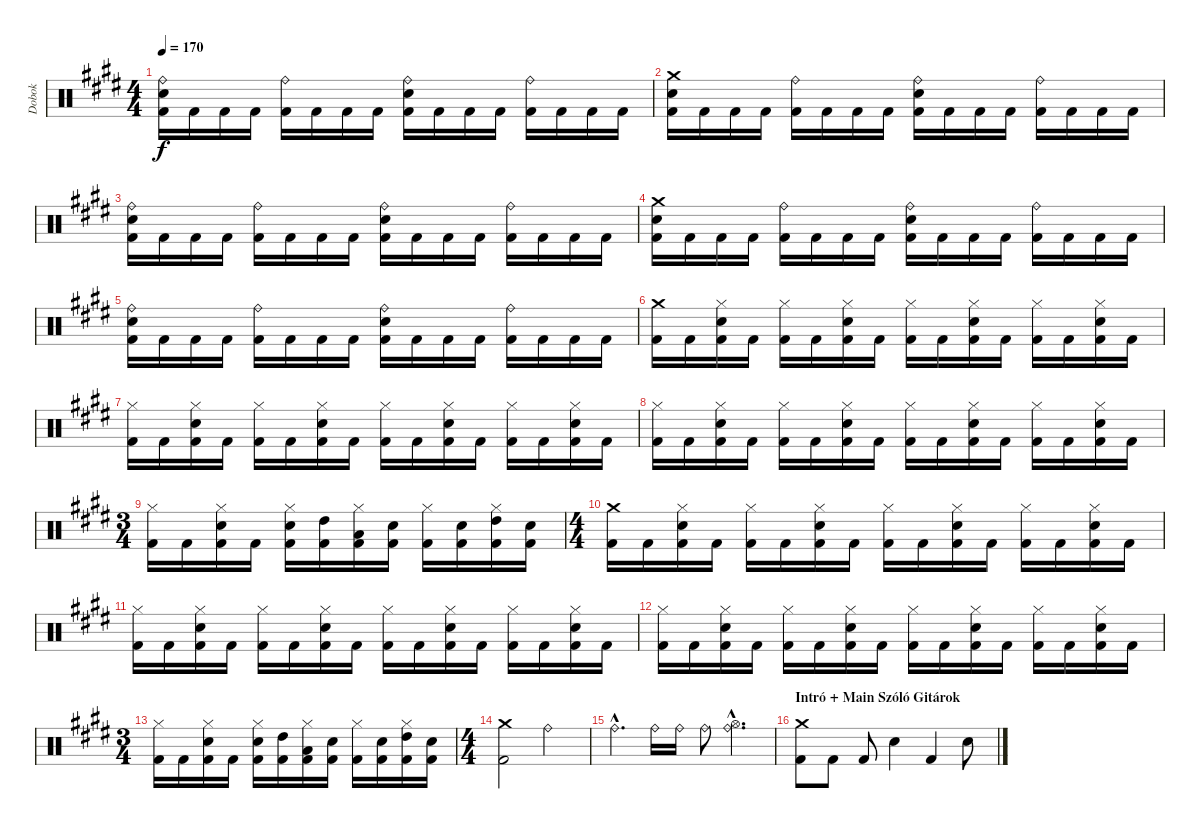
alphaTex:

\track ("Dobok" "Dobok") {instrument percussion}
\staff {score}
\articulation defaults
\ts (4 4)
\tempo 170
\clef neutral
\ks c#minor
("Ride (bell)" "Snare (hit) 2" "Kick (hit) 2").16{dy f} "Kick (hit) 2".16 "Kick (hit) 2".16 "Kick (hit) 2".16 ("Ride (bell)" "Kick (hit) 2").16 "Kick (hit) 2".16 "Kick (hit) 2".16 "Kick (hit) 2".16 ("Ride (bell)" "Snare (hit) 2" "Kick (hit) 2").16 "Kick (hit) 2".16 "Kick (hit) 2".16 "Kick (hit) 2".16 ("Ride (bell)" "Kick (hit) 2").16 "Kick (hit) 2".16 "Kick (hit) 2".16 "Kick (hit) 2".16 |
("Crash medium (hit)" "Snare (hit) 2" "Kick (hit) 2").16 "Kick (hit) 2".16 "Kick (hit) 2".16 "Kick (hit) 2".16 ("Ride (bell)" "Kick (hit) 2").16 "Kick (hit) 2".16 "Kick (hit) 2".16 "Kick (hit) 2".16 ("Ride (bell)" "Snare (hit) 2" "Kick (hit) 2").16 "Kick (hit) 2".16 "Kick (hit) 2".16 "Kick (hit) 2".16 ("Ride (bell)" "Kick (hit) 2").16 "Kick (hit) 2".16 "Kick (hit) 2".16 "Kick (hit) 2".16 |
("Ride (bell)" "Snare (hit) 2" "Kick (hit) 2").16 "Kick (hit) 2".16 "Kick (hit) 2".16 "Kick (hit) 2".16 ("Ride (bell)" "Kick (hit) 2").16 "Kick (hit) 2".16 "Kick (hit) 2".16 "Kick (hit) 2".16 ("Ride (bell)" "Snare (hit) 2" "Kick (hit) 2").16 "Kick (hit) 2".16 "Kick (hit) 2".16 "Kick (hit) 2".16 ("Ride (bell)" "Kick (hit) 2").16 "Kick (hit) 2".16 "Kick (hit) 2".16 "Kick (hit) 2".16 |
("Crash medium (hit)" "Snare (hit) 2" "Kick (hit) 2").16 "Kick (hit) 2".16 "Kick (hit) 2".16 "Kick (hit) 2".16 ("Ride (bell)" "Kick (hit) 2").16 "Kick (hit) 2".16 "Kick (hit) 2".16 "Kick (hit) 2".16 ("Ride (bell)" "Snare (hit) 2" "Kick (hit) 2").16 "Kick (hit) 2".16 "Kick (hit) 2".16 "Kick (hit) 2".16 ("Ride (bell)" "Kick (hit) 2").16 "Kick (hit) 2".16 "Kick (hit) 2".16 "Kick (hit) 2".16 |
("Ride (bell)" "Snare (hit) 2" "Kick (hit) 2").16 "Kick (hit) 2".16 "Kick (hit) 2".16 "Kick (hit) 2".16 ("Ride (bell)" "Kick (hit) 2").16 "Kick (hit) 2".16 "Kick (hit) 2".16 "Kick (hit) 2".16 ("Ride (bell)" "Snare (hit) 2" "Kick (hit) 2").16 "Kick (hit) 2".16 "Kick (hit) 2".16 "Kick (hit) 2".16 ("Ride (bell)" "Kick (hit) 2").16 "Kick (hit) 2".16 "Kick (hit) 2".16 "Kick (hit) 2".16 |
("Crash medium (hit)" "Kick (hit) 2").16 "Kick (hit) 2".16 ("Hi-Hat (closed)" "Snare (hit) 2" "Kick (hit) 2").16 "Kick (hit) 2".16 ("Hi-Hat (closed)" "Kick (hit) 2").16 "Kick (hit) 2".16 ("Hi-Hat (closed)" "Snare (hit) 2" "Kick (hit) 2").16 "Kick (hit) 2".16 ("Hi-Hat (closed)" "Kick (hit) 2").16 "Kick (hit) 2".16 ("Hi-Hat (closed)" "Snare (hit) 2" "Kick (hit) 2").16 "Kick (hit) 2".16 ("Hi-Hat (closed)" "Kick (hit) 2").16 "Kick (hit) 2".16 ("Hi-Hat (closed)" "Snare (hit) 2" "Kick (hit) 2").16 "Kick (hit) 2".16 |
("Hi-Hat (closed)" "Kick (hit) 2").16 "Kick (hit) 2".16 ("Hi-Hat (closed)" "Snare (hit) 2" "Kick (hit) 2").16 "Kick (hit) 2".16 ("Hi-Hat (closed)" "Kick (hit) 2").16 "Kick (hit) 2".16 ("Hi-Hat (closed)" "Snare (hit) 2" "Kick (hit) 2").16 "Kick (hit) 2".16 ("Hi-Hat (closed)" "Kick (hit) 2").16 "Kick (hit) 2".16 ("Hi-Hat (closed)" "Snare (hit) 2" "Kick (hit) 2").16 "Kick (hit) 2".16 ("Hi-Hat (closed)" "Kick (hit) 2").16 "Kick (hit) 2".16 ("Hi-Hat (closed)" "Snare (hit) 2" "Kick (hit) 2").16 "Kick (hit) 2".16 |
("Hi-Hat (closed)" "Kick (hit) 2").16 "Kick (hit) 2".16 ("Hi-Hat (closed)" "Snare (hit) 2" "Kick (hit) 2").16 "Kick (hit) 2".16 ("Hi-Hat (closed)" "Kick (hit) 2").16 "Kick (hit) 2".16 ("Hi-Hat (closed)" "Snare (hit) 2" "Kick (hit) 2").16 "Kick (hit) 2".16 ("Hi-Hat (closed)" "Kick (hit) 2").16 "Kick (hit) 2".16 ("Hi-Hat (closed)" "Snare (hit) 2" "Kick (hit) 2").16 "Kick (hit) 2".16 ("Hi-Hat (closed)" "Kick (hit) 2").16 "Kick (hit) 2".16 ("Hi-Hat (closed)" "Snare (hit) 2" "Kick (hit) 2").16 "Kick (hit) 2".16 |
\ts (3 4)
("Hi-Hat (closed)" "Kick (hit) 2").16 "Kick (hit) 2".16 ("Hi-Hat (closed)" "Snare (hit) 2" "Kick (hit) 2").16 "Kick (hit) 2".16 ("Hi-Hat (closed)" "Snare (hit) 2" "Kick (hit) 2").16 ("High Tom (hit)" "Kick (hit) 2").16 ("Hi-Hat (closed)" "Low Tom (hit)" "Kick (hit) 2").16 ("Snare (hit) 2" "Kick (hit) 2").16 ("Hi-Hat (closed)" "Kick (hit) 2").16 ("Snare (hit) 2" "Kick (hit) 2").16 ("Hi-Hat (closed)" "High Tom (hit)" "Kick (hit) 2").16 ("Snare (hit) 2" "Kick (hit) 2").16 |
\ts (4 4)
("Crash medium (hit)" "Kick (hit) 2").16 "Kick (hit) 2".16 ("Hi-Hat (closed)" "Snare (hit) 2" "Kick (hit) 2").16 "Kick (hit) 2".16 ("Hi-Hat (closed)" "Kick (hit) 2").16 "Kick (hit) 2".16 ("Hi-Hat (closed)" "Snare (hit) 2" "Kick (hit) 2").16 "Kick (hit) 2".16 ("Hi-Hat (closed)" "Kick (hit) 2").16 "Kick (hit) 2".16 ("Hi-Hat (closed)" "Snare (hit) 2" "Kick (hit) 2").16 "Kick (hit) 2".16 ("Hi-Hat (closed)" "Kick (hit) 2").16 "Kick (hit) 2".16 ("Hi-Hat (closed)" "Snare (hit) 2" "Kick (hit) 2").16 "Kick (hit) 2".16 |
("Hi-Hat (closed)" "Kick (hit) 2").16 "Kick (hit) 2".16 ("Hi-Hat (closed)" "Snare (hit) 2" "Kick (hit) 2").16 "Kick (hit) 2".16 ("Hi-Hat (closed)" "Kick (hit) 2").16 "Kick (hit) 2".16 ("Hi-Hat (closed)" "Snare (hit) 2" "Kick (hit) 2").16 "Kick (hit) 2".16 ("Hi-Hat (closed)" "Kick (hit) 2").16 "Kick (hit) 2".16 ("Hi-Hat (closed)" "Snare (hit) 2" "Kick (hit) 2").16 "Kick (hit) 2".16 ("Hi-Hat (closed)" "Kick (hit) 2").16 "Kick (hit) 2".16 ("Hi-Hat (closed)" "Snare (hit) 2" "Kick (hit) 2").16 "Kick (hit) 2".16 |
("Hi-Hat (closed)" "Kick (hit) 2").16 "Kick (hit) 2".16 ("Hi-Hat (closed)" "Snare (hit) 2" "Kick (hit) 2").16 "Kick (hit) 2".16 ("Hi-Hat (closed)" "Kick (hit) 2").16 "Kick (hit) 2".16 ("Hi-Hat (closed)" "Snare (hit) 2" "Kick (hit) 2").16 "Kick (hit) 2".16 ("Hi-Hat (closed)" "Kick (hit) 2").16 "Kick (hit) 2".16 ("Hi-Hat (closed)" "Snare (hit) 2" "Kick (hit) 2").16 "Kick (hit) 2".16 ("Hi-Hat (closed)" "Kick (hit) 2").16 "Kick (hit) 2".16 ("Hi-Hat (closed)" "Snare (hit) 2" "Kick (hit) 2").16 "Kick (hit) 2".16 |
\ts (3 4)
("Hi-Hat (closed)" "Kick (hit) 2").16 "Kick (hit) 2".16 ("Hi-Hat (closed)" "Snare (hit) 2" "Kick (hit) 2").16 "Kick (hit) 2".16 ("Hi-Hat (closed)" "Snare (hit) 2" "Kick (hit) 2").16 ("High Tom (hit)" "Kick (hit) 2").16 ("Hi-Hat (closed)" "Low Tom (hit)" "Kick (hit) 2").16 ("Snare (hit) 2" "Kick (hit) 2").16 ("Hi-Hat (closed)" "Kick (hit) 2").16 ("Snare (hit) 2" "Kick (hit) 2").16 ("Hi-Hat (closed)" "High Tom (hit)" "Kick (hit) 2").16 ("Snare (hit) 2" "Kick (hit) 2").16 |
\ts (4 4)
("Crash medium (hit)" "Kick (hit) 2").2 "Ride (bell)".2 |
"Ride (bell)"{hac}.4{d} "Ride (bell)".16 "Ride (bell)".16 "Ride (bell)".8 ("Ride (bell)"{hac} "Hi-Hat (open)"{hac}).4{d} |
\section ("" "Intró + Main Szóló Gitárok")
("Crash medium (hit)" "Kick (hit) 2").8 "Kick (hit) 2".8 "Kick (hit) 2".8 "Snare (hit) 2".4 "Kick (hit) 2".4 "Snare (hit) 2".8
